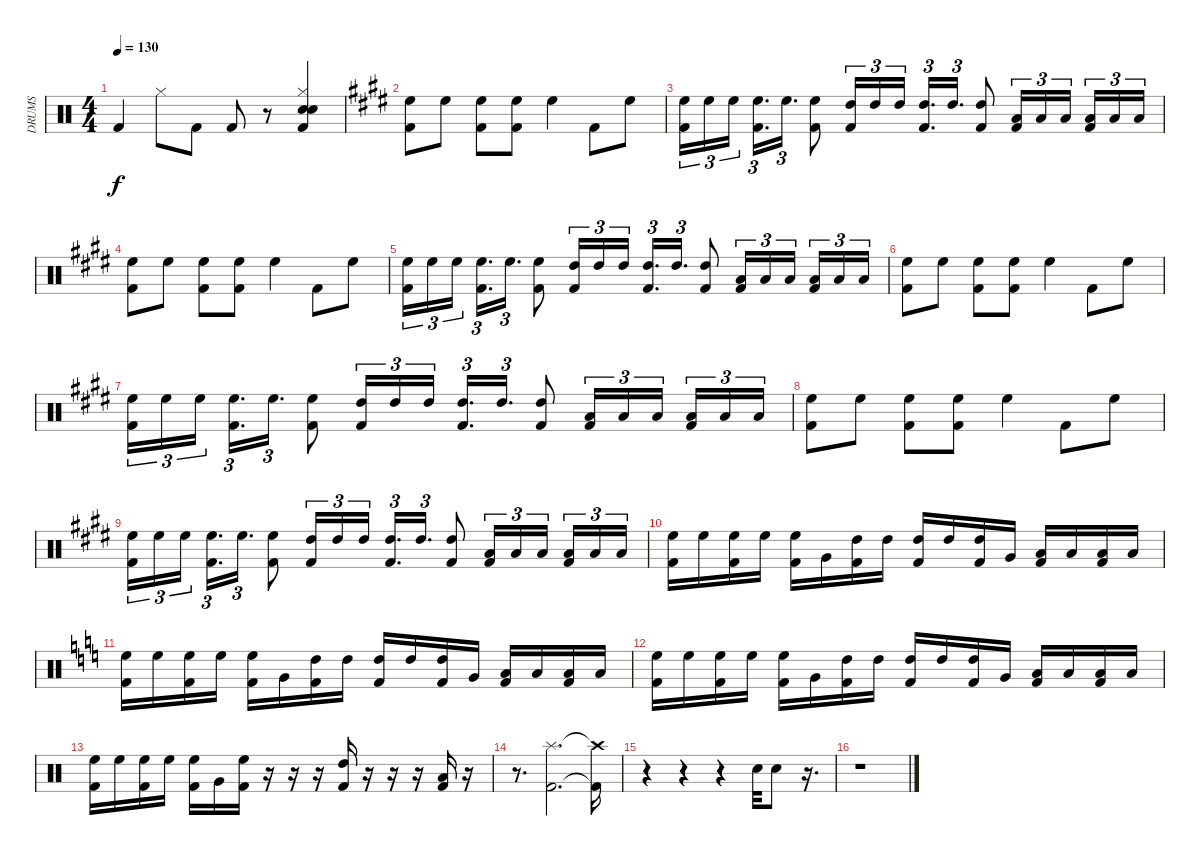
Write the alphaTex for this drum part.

\track ("DRUMS" "DRUMS") {instrument percussion}
\staff {score}
\articulation defaults
\ts (4 4)
\tempo 130
\clef neutral
\ks c "Kick (hit) 2".4{dy f} "Hi-Hat (closed)".8 "Kick (hit) 2".8 "Kick (hit) 2".8
r.8 ("Hi-Hat (closed)" "Electric Snare (hit)" "Snare (hit) 2" "Kick (hit) 2").4 |
\ks c#minor
("High Floor Tom (hit)" "Kick (hit) 2").8 "High Floor Tom (hit)".8 ("High Floor Tom (hit)" "Kick (hit) 2").8 ("High Floor Tom (hit)" "Kick (hit) 2").8 "High Floor Tom (hit)".4 "Kick (hit) 2".8 "High Floor Tom (hit)".8 |
("High Floor Tom (hit)" "Kick (hit) 2").16{tu (3 2) balance 1} "High Floor Tom (hit)".16{tu (3 2)} "High Floor Tom (hit)".16{tu (3 2) beam splitsecondary} ("High Floor Tom (hit)" "Kick (hit) 2").16{d tu (3 2)} "High Floor Tom (hit)".16{d tu (3 2)} ("High Floor Tom (hit)" "Kick (hit) 2").8 ("High Tom (hit)" "Kick (hit) 2").16{tu (3 2) balance 8} "High Tom (hit)".16{tu (3 2)} "High Tom (hit)".16{tu (3 2)} ("High Tom (hit)" "Kick (hit) 2").16{d tu (3 2)} "High Tom (hit)".16{d tu (3 2)} ("High Tom (hit)" "Kick (hit) 2").8 ("Low Tom (hit)" "Kick (hit) 2").16{tu (3 2) balance 16} "Low Tom (hit)".16{tu (3 2)} "Low Tom (hit)".16{tu (3 2) beam splitsecondary} ("Low Tom (hit)" "Kick (hit) 2").16{tu (3 2)} "Low Tom (hit)".16{tu (3 2)} "Low Tom (hit)".16{tu (3 2)} |
("High Floor Tom (hit)" "Kick (hit) 2").8{balance 8} "High Floor Tom (hit)".8 ("High Floor Tom (hit)" "Kick (hit) 2").8 ("High Floor Tom (hit)" "Kick (hit) 2").8 "High Floor Tom (hit)".4 "Kick (hit) 2".8 "High Floor Tom (hit)".8 |
("High Floor Tom (hit)" "Kick (hit) 2").16{tu (3 2) balance 1} "High Floor Tom (hit)".16{tu (3 2)} "High Floor Tom (hit)".16{tu (3 2) beam splitsecondary} ("High Floor Tom (hit)" "Kick (hit) 2").16{d tu (3 2)} "High Floor Tom (hit)".16{d tu (3 2)} ("High Floor Tom (hit)" "Kick (hit) 2").8 ("High Tom (hit)" "Kick (hit) 2").16{tu (3 2) balance 8} "High Tom (hit)".16{tu (3 2)} "High Tom (hit)".16{tu (3 2)} ("High Tom (hit)" "Kick (hit) 2").16{d tu (3 2)} "High Tom (hit)".16{d tu (3 2)} ("High Tom (hit)" "Kick (hit) 2").8 ("Low Tom (hit)" "Kick (hit) 2").16{tu (3 2) balance 16} "Low Tom (hit)".16{tu (3 2)} "Low Tom (hit)".16{tu (3 2) beam splitsecondary} ("Low Tom (hit)" "Kick (hit) 2").16{tu (3 2)} "Low Tom (hit)".16{tu (3 2)} "Low Tom (hit)".16{tu (3 2)} |
("High Floor Tom (hit)" "Kick (hit) 2").8{balance 8} "High Floor Tom (hit)".8 ("High Floor Tom (hit)" "Kick (hit) 2").8 ("High Floor Tom (hit)" "Kick (hit) 2").8 "High Floor Tom (hit)".4 "Kick (hit) 2".8 "High Floor Tom (hit)".8 |
("High Floor Tom (hit)" "Kick (hit) 2").16{tu (3 2) balance 1} "High Floor Tom (hit)".16{tu (3 2)} "High Floor Tom (hit)".16{tu (3 2) beam splitsecondary} ("High Floor Tom (hit)" "Kick (hit) 2").16{d tu (3 2)} "High Floor Tom (hit)".16{d tu (3 2)} ("High Floor Tom (hit)" "Kick (hit) 2").8 ("High Tom (hit)" "Kick (hit) 2").16{tu (3 2) balance 8} "High Tom (hit)".16{tu (3 2)} "High Tom (hit)".16{tu (3 2)} ("High Tom (hit)" "Kick (hit) 2").16{d tu (3 2)} "High Tom (hit)".16{d tu (3 2)} ("High Tom (hit)" "Kick (hit) 2").8 ("Low Tom (hit)" "Kick (hit) 2").16{tu (3 2) balance 16} "Low Tom (hit)".16{tu (3 2)} "Low Tom (hit)".16{tu (3 2) beam splitsecondary} ("Low Tom (hit)" "Kick (hit) 2").16{tu (3 2)} "Low Tom (hit)".16{tu (3 2)} "Low Tom (hit)".16{tu (3 2)} |
("High Floor Tom (hit)" "Kick (hit) 2").8{balance 8} "High Floor Tom (hit)".8 ("High Floor Tom (hit)" "Kick (hit) 2").8 ("High Floor Tom (hit)" "Kick (hit) 2").8 "High Floor Tom (hit)".4 "Kick (hit) 2".8 "High Floor Tom (hit)".8 |
("High Floor Tom (hit)" "Kick (hit) 2").16{tu (3 2) balance 1} "High Floor Tom (hit)".16{tu (3 2)} "High Floor Tom (hit)".16{tu (3 2) beam splitsecondary} ("High Floor Tom (hit)" "Kick (hit) 2").16{d tu (3 2)} "High Floor Tom (hit)".16{d tu (3 2)} ("High Floor Tom (hit)" "Kick (hit) 2").8 ("High Tom (hit)" "Kick (hit) 2").16{tu (3 2) balance 8} "High Tom (hit)".16{tu (3 2)} "High Tom (hit)".16{tu (3 2)} ("High Tom (hit)" "Kick (hit) 2").16{d tu (3 2)} "High Tom (hit)".16{d tu (3 2)} ("High Tom (hit)" "Kick (hit) 2").8 ("Low Tom (hit)" "Kick (hit) 2").16{tu (3 2) balance 16} "Low Tom (hit)".16{tu (3 2)} "Low Tom (hit)".16{tu (3 2) beam splitsecondary} ("Low Tom (hit)" "Kick (hit) 2").16{tu (3 2)} "Low Tom (hit)".16{tu (3 2)} "Low Tom (hit)".16{tu (3 2)} |
("High Floor Tom (hit)" "Kick (hit) 2").16{balance 1} "High Floor Tom (hit)".16 ("High Floor Tom (hit)" "Kick (hit) 2").16 "High Floor Tom (hit)".16 ("High Floor Tom (hit)" "Kick (hit) 2").16 "Very Low Tom (hit)".16 ("High Tom (hit)" "Kick (hit) 2").16{balance 8} "High Tom (hit)".16 ("High Tom (hit)" "Kick (hit) 2").16 "High Tom (hit)".16 ("High Tom (hit)" "Kick (hit) 2").16 "Very Low Tom (hit)".16 ("Low Tom (hit)" "Kick (hit) 2").16{balance 16} "Low Tom (hit)".16 ("Low Tom (hit)" "Kick (hit) 2").16 "Low Tom (hit)".16 |
\ks c
("High Floor Tom (hit)" "Kick (hit) 2").16{balance 1} "High Floor Tom (hit)".16 ("High Floor Tom (hit)" "Kick (hit) 2").16 "High Floor Tom (hit)".16 ("High Floor Tom (hit)" "Kick (hit) 2").16 "Very Low Tom (hit)".16 ("High Tom (hit)" "Kick (hit) 2").16{balance 8} "High Tom (hit)".16 ("High Tom (hit)" "Kick (hit) 2").16 "High Tom (hit)".16 ("High Tom (hit)" "Kick (hit) 2").16 "Very Low Tom (hit)".16 ("Low Tom (hit)" "Kick (hit) 2").16{balance 16} "Low Tom (hit)".16 ("Low Tom (hit)" "Kick (hit) 2").16 "Low Tom (hit)".16 |
("High Floor Tom (hit)" "Kick (hit) 2").16{balance 1} "High Floor Tom (hit)".16 ("High Floor Tom (hit)" "Kick (hit) 2").16 "High Floor Tom (hit)".16 ("High Floor Tom (hit)" "Kick (hit) 2").16 "Very Low Tom (hit)".16 ("High Tom (hit)" "Kick (hit) 2").16{balance 8} "High Tom (hit)".16 ("High Tom (hit)" "Kick (hit) 2").16 "High Tom (hit)".16 ("High Tom (hit)" "Kick (hit) 2").16 "Very Low Tom (hit)".16 ("Low Tom (hit)" "Kick (hit) 2").16{balance 16} "Low Tom (hit)".16 ("Low Tom (hit)" "Kick (hit) 2").16 "Low Tom (hit)".16 |
("High Floor Tom (hit)" "Kick (hit) 2").16{balance 0} "High Floor Tom (hit)".16 ("High Floor Tom (hit)" "Kick (hit) 2").16 "High Floor Tom (hit)".16 ("High Floor Tom (hit)" "Kick (hit) 2").16 "Very Low Tom (hit)".16 ("High Floor Tom (hit)" "Kick (hit) 2").16 r.16 r.16 r.16 ("High Tom (hit)" "Kick (hit) 2").16 r.16 r.16 r.16 ("Low Tom (hit)" "Kick (hit) 2").16{balance 8} r.16 |
r.8{d} ("Splash (hit)" "Kick (hit) 2").2{d balance 16} ("Crash high (hit)"{t} "Kick (hit) 2"{t}).16 |
r.4 r.4 r.4 "Electric Snare (hit)".32 "Electric Snare (hit)".8 r.16{d} |
r.1
